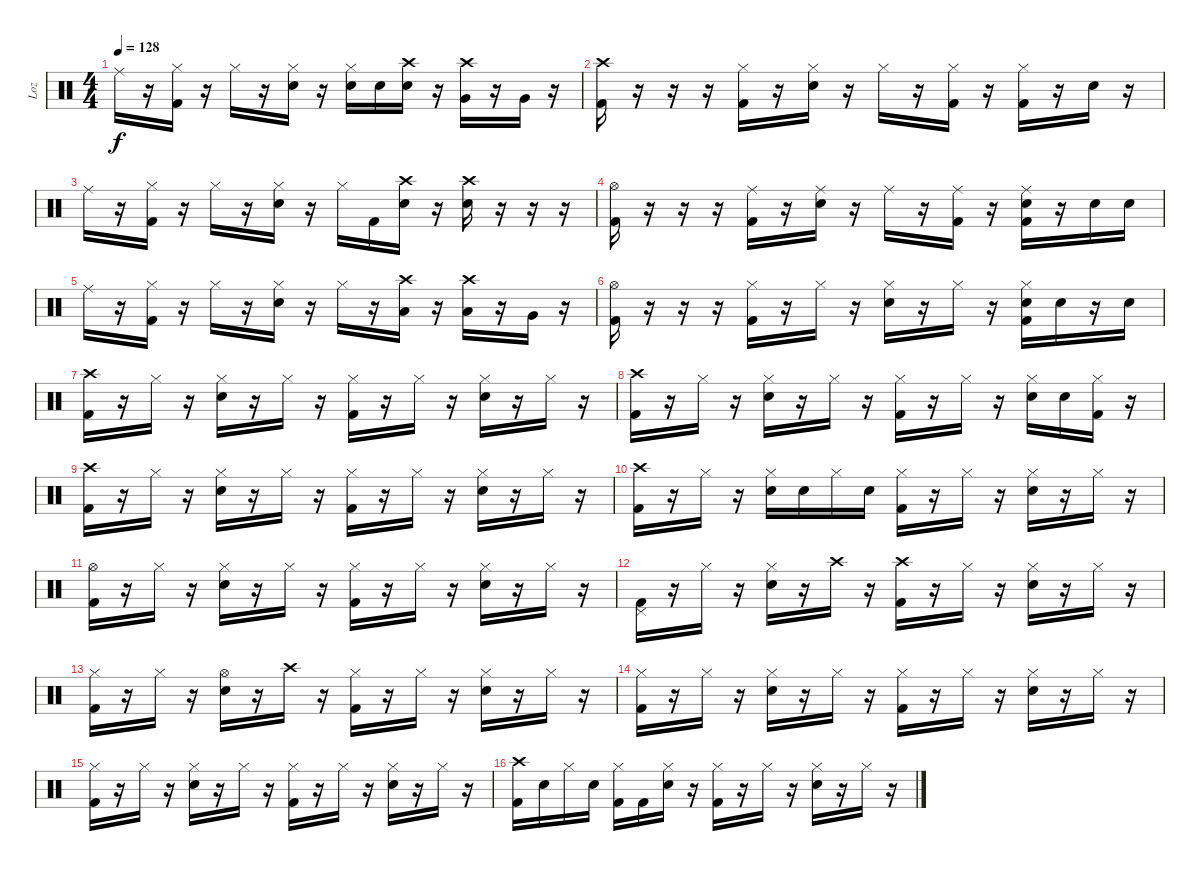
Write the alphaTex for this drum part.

\track ("Loz" "Loz") {instrument percussion}
\staff {score}
\articulation defaults
\ts (4 4)
\tempo 128
\clef neutral
\ks c "Ride (middle)".16{dy f}
r.16 ("Hi-Hat (closed)" "Kick (hit) 2").16 r.16 "Hi-Hat (closed)".16 r.16 ("Hi-Hat (closed)" "Snare (hit) 2").16 r.16 ("Hi-Hat (closed)" "Snare (hit) 2").16 "Snare (hit) 2".16 ("Crash high (hit)" "Snare (hit) 2").16 r.16 ("Crash high (hit)" "Very Low Tom (hit)").16 r.16 "Very Low Tom (hit)".16 r.16 |
("Crash high (hit)" "Kick (hit) 2").16 r.16 r.16 r.16 ("Hi-Hat (closed)" "Kick (hit) 2").16 r.16 ("Hi-Hat (closed)" "Snare (hit) 2").16 r.16 "Hi-Hat (closed)".16 r.16 ("Hi-Hat (closed)" "Kick (hit) 2").16 r.16 ("Hi-Hat (closed)" "Kick (hit) 2").16 r.16 "Snare (hit) 2".16 r.16 |
"Ride (middle)".16 r.16 ("Hi-Hat (closed)" "Kick (hit) 2").16 r.16 "Hi-Hat (closed)".16 r.16 ("Hi-Hat (closed)" "Snare (hit) 2").16 r.16 "Hi-Hat (closed)".16 "Kick (hit) 2".16 ("Crash high (hit)" "Snare (hit) 2").16 r.16 ("Crash high (hit)" "Snare (hit) 2").16 r.16 r.16 r.16 |
("Hi-Hat (open)" "Kick (hit) 2").16 r.16 r.16 r.16 ("Ride (middle)" "Kick (hit) 2").16 r.16 ("Ride (middle)" "Snare (hit) 2").16 r.16 "Ride (middle)".16 r.16 ("Ride (middle)" "Kick (hit) 2").16 r.16 ("Ride (middle)" "Snare (hit) 2" "Kick (hit) 2").16 r.16 "Snare (hit) 2".16 "Snare (hit) 2".16 |
"Ride (middle)".16 r.16 ("Hi-Hat (closed)" "Kick (hit) 2").16 r.16 "Hi-Hat (closed)".16 r.16 ("Hi-Hat (closed)" "Snare (hit) 2").16 r.16 "Hi-Hat (closed)".16 r.16 ("Crash high (hit)" "Low Floor Tom (hit)").16 r.16 ("Crash high (hit)" "Low Tom (hit)").16 r.16 "Very Low Tom (hit)".16 r.16 |
("Hi-Hat (open)" "Kick (hit) 2").16 r.16 r.16 r.16 ("Hi-Hat (closed)" "Kick (hit) 2").16 r.16 "Hi-Hat (closed)".16 r.16 ("Hi-Hat (closed)" "Snare (hit) 2").16 r.16 "Hi-Hat (closed)".16 r.16 ("Hi-Hat (closed)" "Snare (hit) 2" "Kick (hit) 2").16 "Snare (hit) 2".16 r.16 "Snare (hit) 2".16 |
("Crash high (hit)" "Kick (hit) 2").16 r.16 "Hi-Hat (closed)".16 r.16 ("Hi-Hat (closed)" "Snare (hit) 2").16 r.16 "Hi-Hat (closed)".16 r.16 ("Hi-Hat (closed)" "Kick (hit) 2").16 r.16 "Hi-Hat (closed)".16 r.16 ("Hi-Hat (closed)" "Snare (hit) 2").16 r.16 "Hi-Hat (closed)".16 r.16 |
("Crash high (hit)" "Kick (hit) 2").16 r.16 "Hi-Hat (closed)".16 r.16 ("Hi-Hat (closed)" "Snare (hit) 2").16 r.16 "Hi-Hat (closed)".16 r.16 ("Hi-Hat (closed)" "Kick (hit) 2").16 r.16 "Hi-Hat (closed)".16 r.16 ("Hi-Hat (closed)" "Snare (hit) 2").16 "Snare (hit) 2".16 ("Hi-Hat (closed)" "Kick (hit) 2").16 r.16 |
("Crash high (hit)" "Kick (hit) 2").16 r.16 "Hi-Hat (closed)".16 r.16 ("Hi-Hat (closed)" "Snare (hit) 2").16 r.16 "Hi-Hat (closed)".16 r.16 ("Hi-Hat (closed)" "Kick (hit) 2").16 r.16 "Hi-Hat (closed)".16 r.16 ("Hi-Hat (closed)" "Snare (hit) 2").16 r.16 "Hi-Hat (closed)".16 r.16 |
("Crash high (hit)" "Kick (hit) 2").16 r.16 "Hi-Hat (closed)".16 r.16 ("Hi-Hat (closed)" "Snare (hit) 2").16 "Snare (hit) 2".16 "Hi-Hat (closed)".16 "Snare (hit) 2".16 ("Hi-Hat (closed)" "Kick (hit) 2").16 r.16 "Hi-Hat (closed)".16 r.16 ("Hi-Hat (closed)" "Snare (hit) 2").16 r.16 "Hi-Hat (closed)".16 r.16 |
("Hi-Hat (open)" "Kick (hit) 2").16 r.16 "Hi-Hat (closed)".16 r.16 ("Hi-Hat (closed)" "Snare (hit) 2").16 r.16 "Hi-Hat (closed)".16 r.16 ("Hi-Hat (closed)" "Kick (hit) 2").16 r.16 "Hi-Hat (closed)".16 r.16 ("Hi-Hat (closed)" "Snare (hit) 2").16 r.16 "Hi-Hat (closed)".16 r.16 |
("Pedal Hi-Hat (hit)" "Kick (hit) 2").16 r.16 "Hi-Hat (closed)".16 r.16 ("Hi-Hat (closed)" "Snare (hit) 2").16 r.16 "Crash high (hit)".16 r.16 ("Crash high (hit)" "Kick (hit) 2").16 r.16 "Hi-Hat (closed)".16 r.16 ("Hi-Hat (closed)" "Snare (hit) 2").16 r.16 "Hi-Hat (closed)".16 r.16 |
("Hi-Hat (closed)" "Kick (hit) 2").16 r.16 "Hi-Hat (closed)".16 r.16 ("Hi-Hat (open)" "Snare (hit) 2").16 r.16 "Crash high (hit)".16 r.16 ("Hi-Hat (closed)" "Kick (hit) 2").16 r.16 "Hi-Hat (closed)".16 r.16 ("Hi-Hat (closed)" "Snare (hit) 2").16 r.16 "Hi-Hat (closed)".16 r.16 |
("Hi-Hat (closed)" "Kick (hit) 2").16 r.16 "Hi-Hat (closed)".16 r.16 ("Hi-Hat (closed)" "Snare (hit) 2").16 r.16 "Hi-Hat (closed)".16 r.16 ("Hi-Hat (closed)" "Kick (hit) 2").16 r.16 "Hi-Hat (closed)".16 r.16 ("Hi-Hat (closed)" "Snare (hit) 2").16 r.16 "Hi-Hat (closed)".16 r.16 |
("Hi-Hat (closed)" "Kick (hit) 2").16 r.16 "Hi-Hat (closed)".16 r.16 ("Hi-Hat (closed)" "Snare (hit) 2").16 r.16 "Hi-Hat (closed)".16 r.16 ("Hi-Hat (closed)" "Kick (hit) 2").16 r.16 "Hi-Hat (closed)".16 r.16 ("Hi-Hat (closed)" "Snare (hit) 2").16 r.16 "Hi-Hat (closed)".16 r.16 |
("Crash high (hit)" "Kick (hit) 2").16 "Snare (hit) 2".16 "Hi-Hat (closed)".16 "Snare (hit) 2".16 ("Hi-Hat (closed)" "Kick (hit) 2").16 "Kick (hit) 2".16 ("Hi-Hat (closed)" "Snare (hit) 2").16 r.16 ("Hi-Hat (closed)" "Kick (hit) 2").16 r.16 "Hi-Hat (closed)".16 r.16 ("Hi-Hat (closed)" "Snare (hit) 2").16 r.16 "Hi-Hat (closed)".16 r.16
